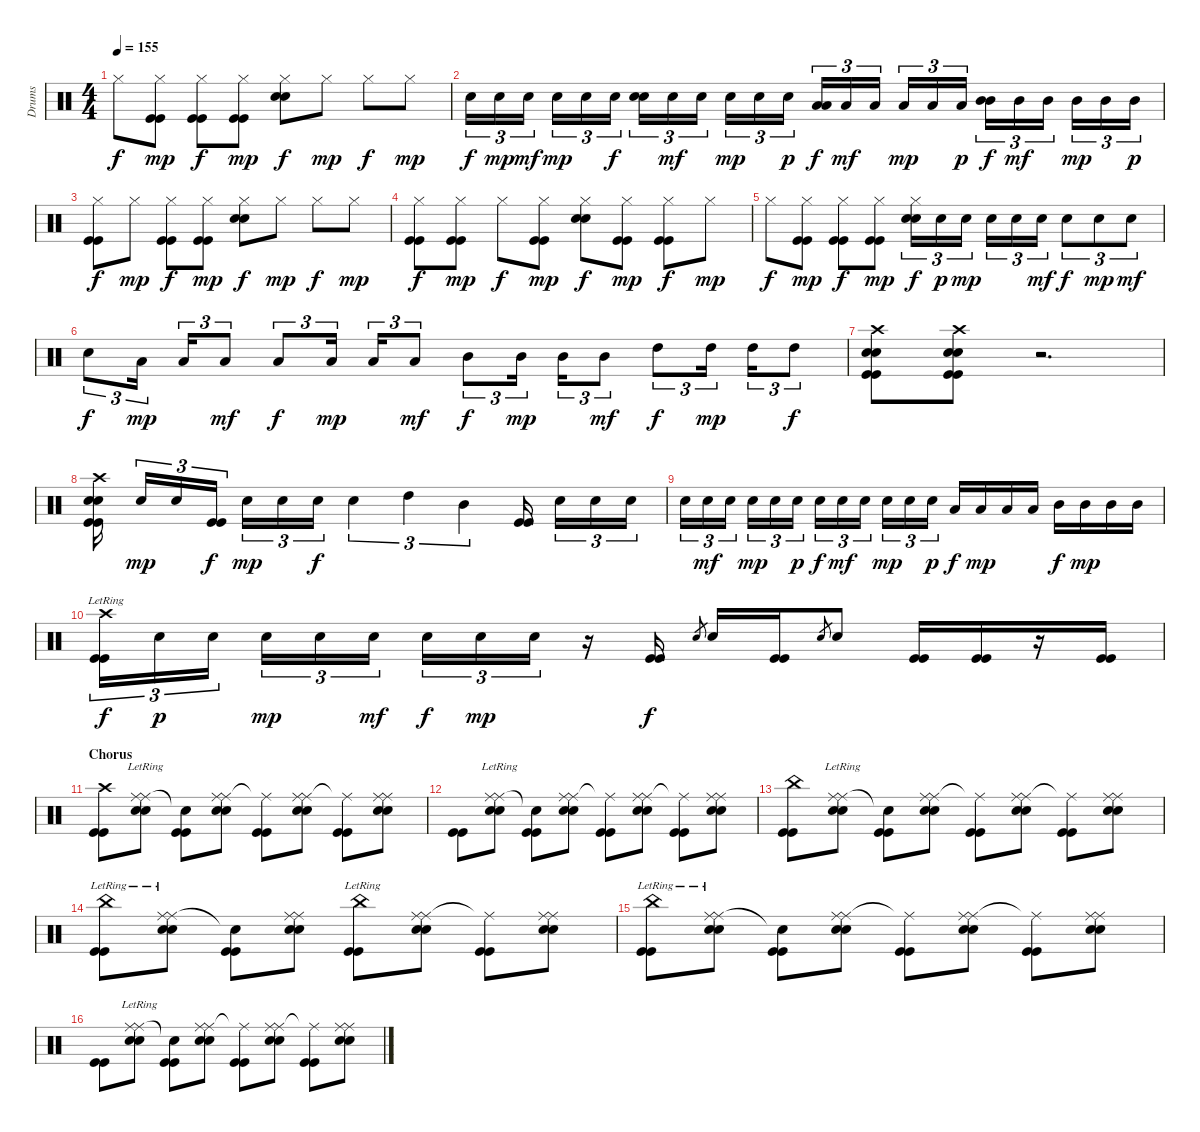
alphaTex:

\track ("Drums" "Drums") {instrument percussion}
\staff {score}
\articulation defaults
\ts (4 4)
\tempo 155
\clef neutral
\ks c "Hi-Hat (closed)".8{dy f}
("Hi-Hat (closed)" "Kick (hit)" "Kick (hit)").8{dy mp} ("Hi-Hat (closed)" "Kick (hit)" "Kick (hit)").8{dy f} ("Hi-Hat (closed)" "Kick (hit)" "Kick (hit)").8{dy mp} ("Hi-Hat (closed)" "Snare (hit) 2" "Snare (hit) 2").8{dy f} "Hi-Hat (closed)".8{dy mp} "Hi-Hat (closed)".8{dy f} "Hi-Hat (closed)".8{dy mp} |
"Snare (hit) 2".16{tu (3 2) dy f} "Snare (hit) 2".16{tu (3 2) dy mp} "Snare (hit) 2".16{tu (3 2) dy mf} "Snare (hit) 2".16{tu (3 2) dy mp} "Snare (hit) 2".16{tu (3 2)} "Snare (hit) 2".16{tu (3 2) dy f} ("Snare (hit) 2" "Snare (hit) 2").16{tu (3 2)} "Snare (hit) 2".16{tu (3 2) dy mf} "Snare (hit) 2".16{tu (3 2)} "Snare (hit) 2".16{tu (3 2) dy mp} "Snare (hit) 2".16{tu (3 2)} "Snare (hit) 2".16{tu (3 2) dy p} ("Low Tom (hit)" "Low Tom (hit)").16{tu (3 2) dy f} "Low Tom (hit)".16{tu (3 2) dy mf} "Low Tom (hit)".16{tu (3 2)} "Low Tom (hit)".16{tu (3 2) dy mp} "Low Tom (hit)".16{tu (3 2)} "Low Tom (hit)".16{tu (3 2) dy p} ("Mid Tom (hit)" "Mid Tom (hit)").16{tu (3 2) dy f} "Mid Tom (hit)".16{tu (3 2) dy mf} "Mid Tom (hit)".16{tu (3 2)} "Mid Tom (hit)".16{tu (3 2) dy mp} "Mid Tom (hit)".16{tu (3 2)} "Mid Tom (hit)".16{tu (3 2) dy p} |
("Hi-Hat (closed)" "Kick (hit)" "Kick (hit)").8{dy f} "Hi-Hat (closed)".8{dy mp} ("Hi-Hat (closed)" "Kick (hit)" "Kick (hit)").8{dy f} ("Hi-Hat (closed)" "Kick (hit)" "Kick (hit)").8{dy mp} ("Hi-Hat (closed)" "Snare (hit) 2" "Snare (hit) 2").8{dy f} "Hi-Hat (closed)".8{dy mp} "Hi-Hat (closed)".8{dy f} "Hi-Hat (closed)".8{dy mp} |
("Hi-Hat (closed)" "Kick (hit)" "Kick (hit)").8{dy f} ("Hi-Hat (closed)" "Kick (hit)" "Kick (hit)").8{dy mp} "Hi-Hat (closed)".8{dy f} ("Hi-Hat (closed)" "Kick (hit)" "Kick (hit)").8{dy mp} ("Hi-Hat (closed)" "Snare (hit) 2" "Snare (hit) 2").8{dy f} ("Hi-Hat (closed)" "Kick (hit)" "Kick (hit)").8{dy mp} ("Hi-Hat (closed)" "Kick (hit)" "Kick (hit)").8{dy f} "Hi-Hat (closed)".8{dy mp} |
"Hi-Hat (closed)".8{dy f} ("Hi-Hat (closed)" "Kick (hit)" "Kick (hit)").8{dy mp} ("Hi-Hat (closed)" "Kick (hit)" "Kick (hit)").8{dy f} ("Hi-Hat (closed)" "Kick (hit)" "Kick (hit)").8{dy mp} ("Hi-Hat (closed)" "Snare (hit) 2" "Snare (hit) 2").16{tu (3 2) dy f} "Snare (hit) 2".16{tu (3 2) dy p} "Snare (hit) 2".16{tu (3 2) dy mp} "Snare (hit) 2".16{tu (3 2)} "Snare (hit) 2".16{tu (3 2)} "Snare (hit) 2".16{tu (3 2) dy mf} "Snare (hit) 2".8{tu (3 2) dy f} "Snare (hit) 2".8{tu (3 2) dy mp} "Snare (hit) 2".8{tu (3 2) dy mf} |
"Snare (hit) 2".8{tu (3 2) dy f} "Low Tom (hit)".16{tu (3 2) dy mp} "Low Tom (hit)".16{tu (3 2)} "Low Tom (hit)".8{tu (3 2) dy mf} "Low Tom (hit)".8{tu (3 2) dy f} "Low Tom (hit)".16{tu (3 2) dy mp} "Low Tom (hit)".16{tu (3 2)} "Low Tom (hit)".8{tu (3 2) dy mf} "Mid Tom (hit)".8{tu (3 2) dy f} "Mid Tom (hit)".16{tu (3 2) dy mp} "Mid Tom (hit)".16{tu (3 2)} "Mid Tom (hit)".8{tu (3 2) dy mf} "High Tom (hit)".8{tu (3 2) dy f} "High Tom (hit)".16{tu (3 2) dy mp} "High Tom (hit)".16{tu (3 2)} "High Tom (hit)".8{tu (3 2) dy f} |
("Crash high (hit)" "Snare (hit) 2" "Snare (hit) 2" "Kick (hit)" "Kick (hit)").8 ("Crash high (hit)" "Snare (hit) 2" "Snare (hit) 2" "Kick (hit)" "Kick (hit)").8 r.2{d} |
("Crash high (hit)" "Snare (hit) 2" "Snare (hit) 2" "Kick (hit)" "Kick (hit)").16 "Snare (hit) 2".16{tu (3 2) dy mp} "Snare (hit) 2".16{tu (3 2)} ("Kick (hit)" "Kick (hit)").16{tu (3 2) dy f} "Snare (hit) 2".16{tu (3 2) dy mp} "Snare (hit) 2".16{tu (3 2)} "Snare (hit) 2".16{tu (3 2) dy f} "Snare (hit) 2".4{tu (3 2)} "High Tom (hit)".4{tu (3 2)} "Mid Tom (hit)".4{tu (3 2)} ("Kick (hit)" "Kick (hit)").16 "Snare (hit) 2".16{tu (3 2)} "Snare (hit) 2".16{tu (3 2)} "Snare (hit) 2".16{tu (3 2)} |
"Snare (hit) 2".16{tu (3 2)} "Snare (hit) 2".16{tu (3 2) dy mf} "Snare (hit) 2".16{tu (3 2)} "Snare (hit) 2".16{tu (3 2) dy mp} "Snare (hit) 2".16{tu (3 2)} "Snare (hit) 2".16{tu (3 2) dy p} "Snare (hit) 2".16{tu (3 2) dy f} "Snare (hit) 2".16{tu (3 2) dy mf} "Snare (hit) 2".16{tu (3 2)} "Snare (hit) 2".16{tu (3 2) dy mp} "Snare (hit) 2".16{tu (3 2)} "Snare (hit) 2".16{tu (3 2) dy p} "Low Tom (hit)".16{dy f} "Low Tom (hit)".16{dy mp} "Low Tom (hit)".16 "Low Tom (hit)".16 "Mid Tom (hit)".16{dy f} "Mid Tom (hit)".16{dy mp} "Mid Tom (hit)".16 "Mid Tom (hit)".16 |
("Crash high (hit)"{lr} "Kick (hit)" "Kick (hit)").16{tu (3 2) dy f} "Snare (hit) 2".16{tu (3 2) dy p} "Snare (hit) 2".16{tu (3 2)} "Snare (hit) 2".16{tu (3 2) dy mp} "Snare (hit) 2".16{tu (3 2)} "Snare (hit) 2".16{tu (3 2) dy mf} "Snare (hit) 2".16{tu (3 2) dy f} "Snare (hit) 2".16{tu (3 2) dy mp} "Snare (hit) 2".16{tu (3 2)} r.16 ("Kick (hit)" "Kick (hit)").16{dy f} "Snare (hit) 2".8{gr} "Snare (hit) 2".16 ("Kick (hit)" "Kick (hit)").16 "Snare (hit) 2".8{gr} "Snare (hit) 2".8 ("Kick (hit)" "Kick (hit)").16 ("Kick (hit)" "Kick (hit)").16 r.16 ("Kick (hit)" "Kick (hit)").16 |
\section ("" "Chorus")
("Crash high (hit)" "Kick (hit)" "Kick (hit)").8 ("Ride (middle)"{lr} "Snare (hit) 2" "Snare (hit) 2" "Ride (middle)").8 ("Snare (hit)"{t} "Kick (hit)" "Kick (hit)").8 ("Ride (middle)" "Snare (hit) 2" "Snare (hit) 2" "Ride (middle)").8 ("Ride (middle)"{t} "Kick (hit)" "Kick (hit)").8 ("Ride (middle)" "Snare (hit) 2" "Snare (hit) 2" "Ride (middle)").8 ("Ride (middle)"{t} "Kick (hit)" "Kick (hit)").8 ("Ride (middle)" "Snare (hit) 2" "Snare (hit) 2" "Ride (middle)").8 |
("Kick (hit)" "Kick (hit)").8 ("Ride (middle)"{lr} "Snare (hit) 2" "Snare (hit) 2" "Ride (middle)").8 ("Snare (hit)"{t} "Kick (hit)" "Kick (hit)").8 ("Ride (middle)" "Snare (hit) 2" "Snare (hit) 2" "Ride (middle)").8 ("Ride (middle)"{t} "Kick (hit)" "Kick (hit)").8 ("Ride (middle)" "Snare (hit) 2" "Snare (hit) 2" "Ride (middle)").8 ("Ride (middle)"{t} "Kick (hit)" "Kick (hit)").8 ("Ride (middle)" "Snare (hit) 2" "Snare (hit) 2" "Ride (middle)").8 |
("China (hit)" "Kick (hit)" "Kick (hit)").8 ("Ride (middle)"{lr} "Snare (hit) 2" "Snare (hit) 2" "Ride (middle)").8 ("Snare (hit)"{t} "Kick (hit)" "Kick (hit)").8 ("Ride (middle)" "Snare (hit) 2" "Snare (hit) 2" "Ride (middle)").8 ("Ride (middle)"{t} "Kick (hit)" "Kick (hit)").8 ("Ride (middle)" "Snare (hit) 2" "Snare (hit) 2" "Ride (middle)").8 ("Ride (middle)"{t} "Kick (hit)" "Kick (hit)").8 ("Ride (middle)" "Snare (hit) 2" "Snare (hit) 2" "Ride (middle)").8 |
("China (hit)"{lr} "Kick (hit)" "Kick (hit)").8 ("Ride (middle)"{lr} "Snare (hit) 2" "Snare (hit) 2" "Ride (middle)").8 ("Snare (hit)"{t} "Kick (hit)" "Kick (hit)").8 ("Ride (middle)" "Snare (hit) 2" "Snare (hit) 2" "Ride (middle)").8 ("China (hit)"{lr} "Kick (hit)" "Kick (hit)").8 ("Ride (middle)" "Snare (hit) 2" "Snare (hit) 2" "Ride (middle)").8 ("Ride (middle)"{t} "Kick (hit)" "Kick (hit)").8 ("Ride (middle)" "Snare (hit) 2" "Snare (hit) 2" "Ride (middle)").8 |
("China (hit)"{lr} "Kick (hit)" "Kick (hit)").8 ("Ride (middle)"{lr} "Snare (hit) 2" "Snare (hit) 2" "Ride (middle)").8 ("Snare (hit)"{t} "Kick (hit)" "Kick (hit)").8 ("Ride (middle)" "Snare (hit) 2" "Snare (hit) 2" "Ride (middle)").8 ("Ride (middle)"{t} "Kick (hit)" "Kick (hit)").8 ("Ride (middle)" "Snare (hit) 2" "Snare (hit) 2" "Ride (middle)").8 ("Ride (middle)"{t} "Kick (hit)" "Kick (hit)").8 ("Ride (middle)" "Snare (hit) 2" "Snare (hit) 2" "Ride (middle)").8 |
("Kick (hit)" "Kick (hit)").8 ("Ride (middle)"{lr} "Snare (hit) 2" "Snare (hit) 2" "Ride (middle)").8 ("Snare (hit)"{t} "Kick (hit)" "Kick (hit)").8 ("Ride (middle)" "Snare (hit) 2" "Snare (hit) 2" "Ride (middle)").8 ("Ride (middle)"{t} "Kick (hit)" "Kick (hit)").8 ("Ride (middle)" "Snare (hit) 2" "Snare (hit) 2" "Ride (middle)").8 ("Ride (middle)"{t} "Kick (hit)" "Kick (hit)").8 ("Ride (middle)" "Snare (hit) 2" "Snare (hit) 2" "Ride (middle)").8
